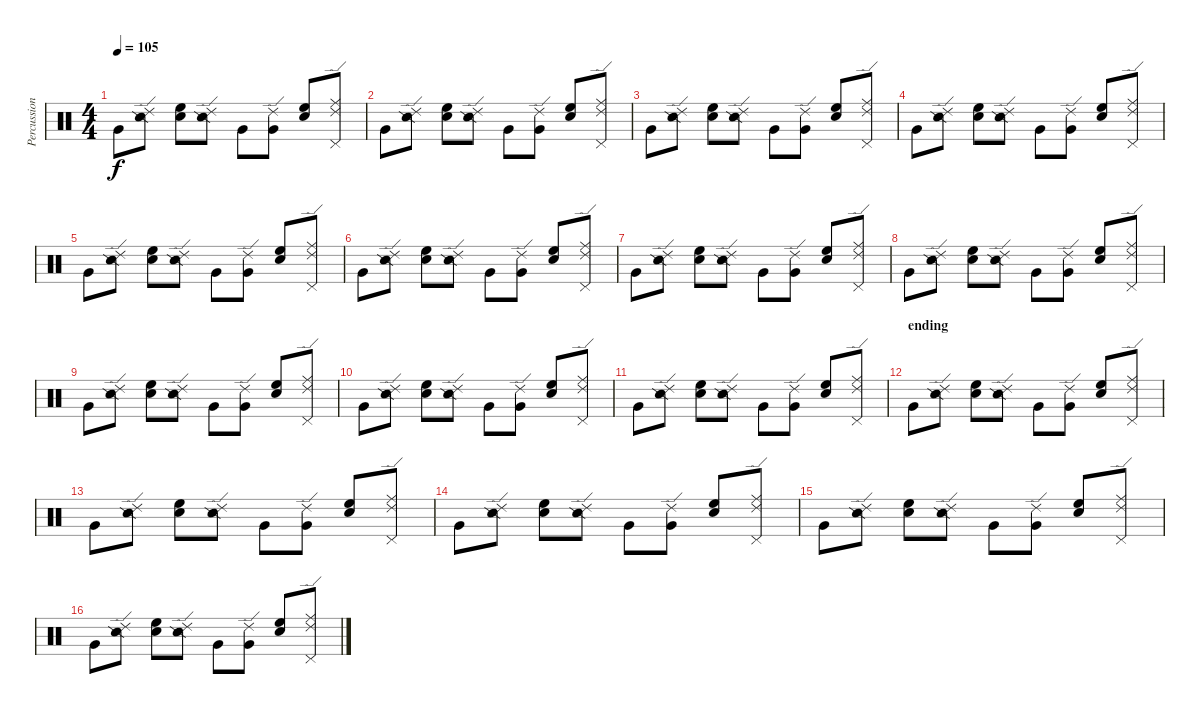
\track ("Percussions" "Percussion") {instrument percussion}
\staff {score}
\articulation defaults
\ts (4 4)
\tempo 105
\clef neutral
\ks c "Very Low Tom (hit)".8{dy f}
("Ride (edge) 2" "Snare (side stick) 2").8 ("Hand Clap (hit)" "High Floor Tom (hit)").8 ("Ride (edge) 2" "Snare (side stick) 2").8 "Very Low Tom (hit)".8 ("Ride (edge) 2" "Very Low Tom (hit)").8 ("Hand Clap (hit)" "High Floor Tom (hit)").8 ("Ride (edge) 2" "Ride (middle)" "Pedal Hi-Hat (hit)").8 |
"Very Low Tom (hit)".8 ("Ride (edge) 2" "Snare (side stick) 2").8 ("Hand Clap (hit)" "High Floor Tom (hit)").8 ("Ride (edge) 2" "Snare (side stick) 2").8 "Very Low Tom (hit)".8 ("Ride (edge) 2" "Very Low Tom (hit)").8 ("Hand Clap (hit)" "High Floor Tom (hit)").8 ("Ride (edge) 2" "Ride (middle)" "Pedal Hi-Hat (hit)").8 |
"Very Low Tom (hit)".8 ("Ride (edge) 2" "Snare (side stick) 2").8 ("Hand Clap (hit)" "High Floor Tom (hit)").8 ("Ride (edge) 2" "Snare (side stick) 2").8 "Very Low Tom (hit)".8 ("Ride (edge) 2" "Very Low Tom (hit)").8 ("Hand Clap (hit)" "High Floor Tom (hit)").8 ("Ride (edge) 2" "Ride (middle)" "Pedal Hi-Hat (hit)").8 |
\section ("" "")
"Very Low Tom (hit)".8 ("Ride (edge) 2" "Snare (side stick) 2").8 ("Hand Clap (hit)" "High Floor Tom (hit)").8 ("Ride (edge) 2" "Snare (side stick) 2").8 "Very Low Tom (hit)".8 ("Ride (edge) 2" "Very Low Tom (hit)").8 ("Hand Clap (hit)" "High Floor Tom (hit)").8 ("Ride (edge) 2" "Ride (middle)" "Pedal Hi-Hat (hit)").8 |
"Very Low Tom (hit)".8 ("Ride (edge) 2" "Snare (side stick) 2").8 ("Hand Clap (hit)" "High Floor Tom (hit)").8 ("Ride (edge) 2" "Snare (side stick) 2").8 "Very Low Tom (hit)".8 ("Ride (edge) 2" "Very Low Tom (hit)").8 ("Hand Clap (hit)" "High Floor Tom (hit)").8 ("Ride (edge) 2" "Ride (middle)" "Pedal Hi-Hat (hit)").8 |
"Very Low Tom (hit)".8 ("Ride (edge) 2" "Snare (side stick) 2").8 ("Hand Clap (hit)" "High Floor Tom (hit)").8 ("Ride (edge) 2" "Snare (side stick) 2").8 "Very Low Tom (hit)".8 ("Ride (edge) 2" "Very Low Tom (hit)").8 ("Hand Clap (hit)" "High Floor Tom (hit)").8 ("Ride (edge) 2" "Ride (middle)" "Pedal Hi-Hat (hit)").8 |
"Very Low Tom (hit)".8 ("Ride (edge) 2" "Snare (side stick) 2").8 ("Hand Clap (hit)" "High Floor Tom (hit)").8 ("Ride (edge) 2" "Snare (side stick) 2").8 "Very Low Tom (hit)".8 ("Ride (edge) 2" "Very Low Tom (hit)").8 ("Hand Clap (hit)" "High Floor Tom (hit)").8 ("Ride (edge) 2" "Ride (middle)" "Pedal Hi-Hat (hit)").8 |
"Very Low Tom (hit)".8 ("Ride (edge) 2" "Snare (side stick) 2").8 ("Hand Clap (hit)" "High Floor Tom (hit)").8 ("Ride (edge) 2" "Snare (side stick) 2").8 "Very Low Tom (hit)".8 ("Ride (edge) 2" "Very Low Tom (hit)").8 ("Hand Clap (hit)" "High Floor Tom (hit)").8 ("Ride (edge) 2" "Ride (middle)" "Pedal Hi-Hat (hit)").8 |
"Very Low Tom (hit)".8 ("Ride (edge) 2" "Snare (side stick) 2").8 ("Hand Clap (hit)" "High Floor Tom (hit)").8 ("Ride (edge) 2" "Snare (side stick) 2").8 "Very Low Tom (hit)".8 ("Ride (edge) 2" "Very Low Tom (hit)").8 ("Hand Clap (hit)" "High Floor Tom (hit)").8 ("Ride (edge) 2" "Ride (middle)" "Pedal Hi-Hat (hit)").8 |
"Very Low Tom (hit)".8 ("Ride (edge) 2" "Snare (side stick) 2").8 ("Hand Clap (hit)" "High Floor Tom (hit)").8 ("Ride (edge) 2" "Snare (side stick) 2").8 "Very Low Tom (hit)".8 ("Ride (edge) 2" "Very Low Tom (hit)").8 ("Hand Clap (hit)" "High Floor Tom (hit)").8 ("Ride (edge) 2" "Ride (middle)" "Pedal Hi-Hat (hit)").8 |
"Very Low Tom (hit)".8 ("Ride (edge) 2" "Snare (side stick) 2").8 ("Hand Clap (hit)" "High Floor Tom (hit)").8 ("Ride (edge) 2" "Snare (side stick) 2").8 "Very Low Tom (hit)".8 ("Ride (edge) 2" "Very Low Tom (hit)").8 ("Hand Clap (hit)" "High Floor Tom (hit)").8 ("Ride (edge) 2" "Ride (middle)" "Pedal Hi-Hat (hit)").8 |
\section ("" "ending")
"Very Low Tom (hit)".8 ("Ride (edge) 2" "Snare (side stick) 2").8 ("Hand Clap (hit)" "High Floor Tom (hit)").8 ("Ride (edge) 2" "Snare (side stick) 2").8 "Very Low Tom (hit)".8 ("Ride (edge) 2" "Very Low Tom (hit)").8 ("Hand Clap (hit)" "High Floor Tom (hit)").8 ("Ride (edge) 2" "Ride (middle)" "Pedal Hi-Hat (hit)").8 |
"Very Low Tom (hit)".8 ("Ride (edge) 2" "Snare (side stick) 2").8 ("Hand Clap (hit)" "High Floor Tom (hit)").8 ("Ride (edge) 2" "Snare (side stick) 2").8 "Very Low Tom (hit)".8 ("Ride (edge) 2" "Very Low Tom (hit)").8 ("Hand Clap (hit)" "High Floor Tom (hit)").8 ("Ride (edge) 2" "Ride (middle)" "Pedal Hi-Hat (hit)").8 |
"Very Low Tom (hit)".8 ("Ride (edge) 2" "Snare (side stick) 2").8 ("Hand Clap (hit)" "High Floor Tom (hit)").8 ("Ride (edge) 2" "Snare (side stick) 2").8 "Very Low Tom (hit)".8 ("Ride (edge) 2" "Very Low Tom (hit)").8 ("Hand Clap (hit)" "High Floor Tom (hit)").8 ("Ride (edge) 2" "Ride (middle)" "Pedal Hi-Hat (hit)").8 |
"Very Low Tom (hit)".8 ("Ride (edge) 2" "Snare (side stick) 2").8 ("Hand Clap (hit)" "High Floor Tom (hit)").8 ("Ride (edge) 2" "Snare (side stick) 2").8 "Very Low Tom (hit)".8 ("Ride (edge) 2" "Very Low Tom (hit)").8 ("Hand Clap (hit)" "High Floor Tom (hit)").8 ("Ride (edge) 2" "Ride (middle)" "Pedal Hi-Hat (hit)").8 |
"Very Low Tom (hit)".8 ("Ride (edge) 2" "Snare (side stick) 2").8 ("Hand Clap (hit)" "High Floor Tom (hit)").8 ("Ride (edge) 2" "Snare (side stick) 2").8 "Very Low Tom (hit)".8 ("Ride (edge) 2" "Very Low Tom (hit)").8 ("Hand Clap (hit)" "High Floor Tom (hit)").8 ("Ride (edge) 2" "Ride (middle)" "Pedal Hi-Hat (hit)").8
